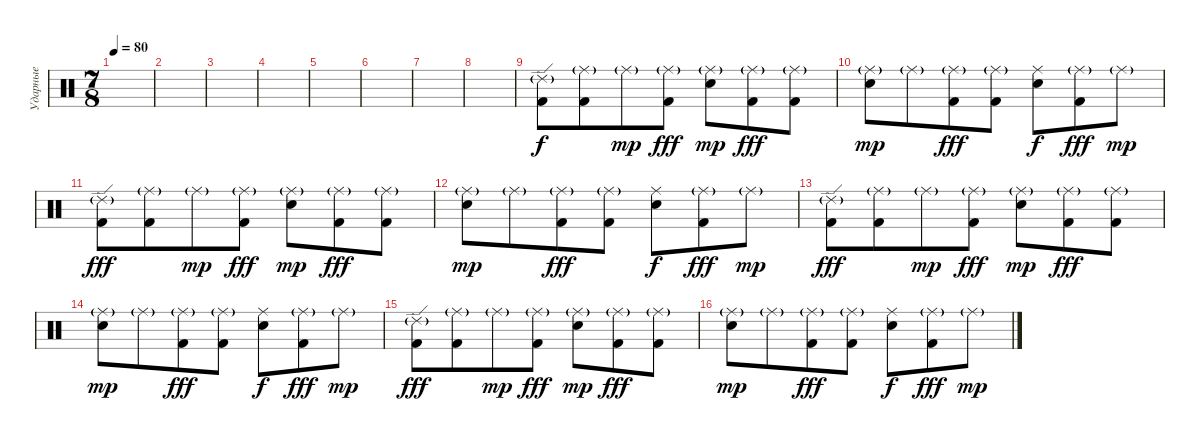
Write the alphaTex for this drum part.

\track ("Ударные" "Ударные") {instrument percussion}
\staff {score}
\articulation defaults
\ts (7 8)
\tempo 80
\clef neutral
\ks c
|
|
|
|
|
|
|
|
("Ride (edge) 2"{g} "Kick (hit) 2").8 ("Ride (middle)"{g} "Kick (hit) 2").8 "Ride (middle)"{g}.8{dy mp} ("Ride (middle)"{g} "Kick (hit) 2").8{dy fff} ("Ride (middle)"{g} "Snare (hit) 2").8{dy mp} ("Ride (middle)"{g} "Kick (hit) 2").8{dy fff} ("Ride (middle)"{g} "Kick (hit) 2").8 |
("Ride (middle)"{g} "Snare (hit) 2").8{dy mp} "Ride (middle)"{g}.8 ("Ride (middle)"{g} "Kick (hit) 2").8{dy fff} ("Ride (middle)"{g} "Kick (hit) 2").8 ("Ride (middle)" "Snare (hit) 2").8{dy f} ("Ride (middle)"{g} "Kick (hit) 2").8{dy fff} "Ride (middle)"{g}.8{dy mp} |
("Ride (edge) 2"{g} "Kick (hit) 2").8{dy fff} ("Ride (middle)"{g} "Kick (hit) 2").8 "Ride (middle)"{g}.8{dy mp} ("Ride (middle)"{g} "Kick (hit) 2").8{dy fff} ("Ride (middle)"{g} "Snare (hit) 2").8{dy mp} ("Ride (middle)"{g} "Kick (hit) 2").8{dy fff} ("Ride (middle)"{g} "Kick (hit) 2").8 |
("Ride (middle)"{g} "Snare (hit) 2").8{dy mp} "Ride (middle)"{g}.8 ("Ride (middle)"{g} "Kick (hit) 2").8{dy fff} ("Ride (middle)"{g} "Kick (hit) 2").8 ("Ride (middle)" "Snare (hit) 2").8{dy f} ("Ride (middle)"{g} "Kick (hit) 2").8{dy fff} "Ride (middle)"{g}.8{dy mp} |
("Ride (edge) 2"{g} "Kick (hit) 2").8{dy fff} ("Ride (middle)"{g} "Kick (hit) 2").8 "Ride (middle)"{g}.8{dy mp} ("Ride (middle)"{g} "Kick (hit) 2").8{dy fff} ("Ride (middle)"{g} "Snare (hit) 2").8{dy mp} ("Ride (middle)"{g} "Kick (hit) 2").8{dy fff} ("Ride (middle)"{g} "Kick (hit) 2").8 |
("Ride (middle)"{g} "Snare (hit) 2").8{dy mp} "Ride (middle)"{g}.8 ("Ride (middle)"{g} "Kick (hit) 2").8{dy fff} ("Ride (middle)"{g} "Kick (hit) 2").8 ("Ride (middle)" "Snare (hit) 2").8{dy f} ("Ride (middle)"{g} "Kick (hit) 2").8{dy fff} "Ride (middle)"{g}.8{dy mp} |
("Ride (edge) 2"{g} "Kick (hit) 2").8{dy fff} ("Ride (middle)"{g} "Kick (hit) 2").8 "Ride (middle)"{g}.8{dy mp} ("Ride (middle)"{g} "Kick (hit) 2").8{dy fff} ("Ride (middle)"{g} "Snare (hit) 2").8{dy mp} ("Ride (middle)"{g} "Kick (hit) 2").8{dy fff} ("Ride (middle)"{g} "Kick (hit) 2").8 |
("Ride (middle)"{g} "Snare (hit) 2").8{dy mp} "Ride (middle)"{g}.8 ("Ride (middle)"{g} "Kick (hit) 2").8{dy fff} ("Ride (middle)"{g} "Kick (hit) 2").8 ("Ride (middle)" "Snare (hit) 2").8{dy f} ("Ride (middle)"{g} "Kick (hit) 2").8{dy fff} "Ride (middle)"{g}.8{dy mp}
